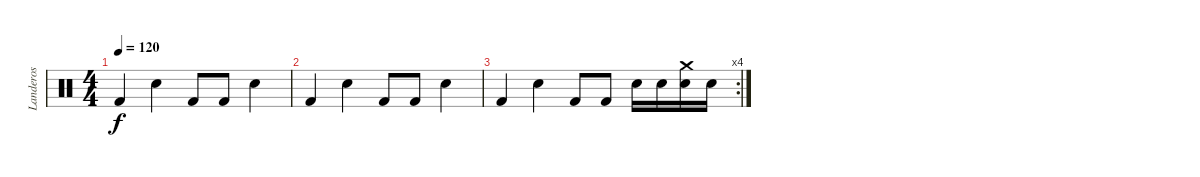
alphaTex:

\track ("Landeros" "Landeros") {instrument percussion}
\staff {score}
\articulation defaults
\ts (4 4)
\tempo 120
\clef neutral
\ks c "Kick (hit) 2".4{dy f} "Snare (hit) 2".4 "Kick (hit) 2".8 "Kick (hit) 2".8 "Snare (hit) 2".4
|
"Kick (hit) 2".4 "Snare (hit) 2".4 "Kick (hit) 2".8 "Kick (hit) 2".8 "Snare (hit) 2".4 |
\rc 4 "Kick (hit) 2".4 "Snare (hit) 2".4 "Kick (hit) 2".8 "Kick (hit) 2".8 "Snare (hit) 2".16 "Snare (hit) 2".16
("Crash medium (hit)" "Snare (hit) 2").16 "Snare (hit) 2".16
